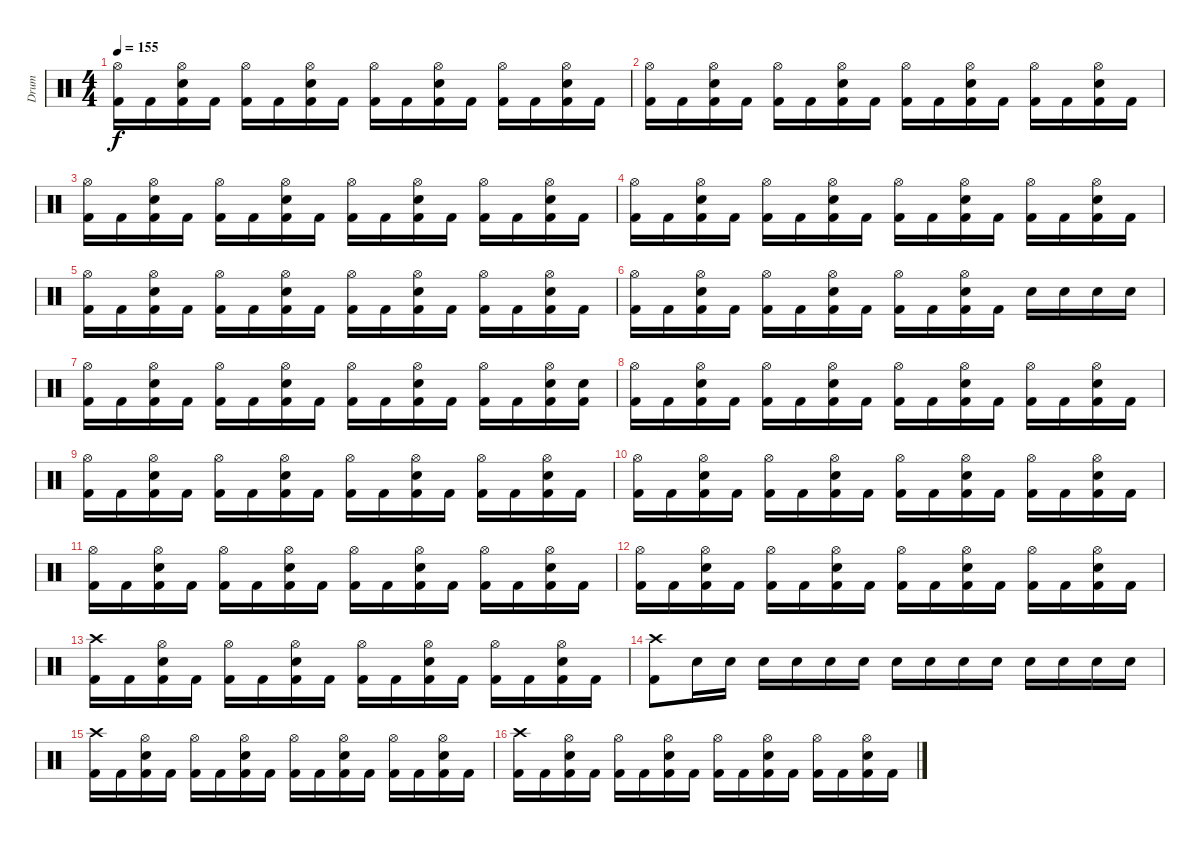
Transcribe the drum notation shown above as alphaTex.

\track ("Drum" "Drum") {instrument percussion}
\staff {score}
\articulation defaults
\ts (4 4)
\tempo 155
\clef neutral
\ks c
("Kick (hit) 2" "Hi-Hat (open)").16{dy f} "Kick (hit) 2".16 ("Kick (hit) 2" "Snare (hit) 2" "Hi-Hat (open)").16 "Kick (hit) 2".16 ("Kick (hit) 2" "Hi-Hat (open)").16 "Kick (hit) 2".16 ("Kick (hit) 2" "Snare (hit) 2" "Hi-Hat (open)").16 "Kick (hit) 2".16 ("Kick (hit) 2" "Hi-Hat (open)").16 "Kick (hit) 2".16 ("Kick (hit) 2" "Snare (hit) 2" "Hi-Hat (open)").16 "Kick (hit) 2".16 ("Kick (hit) 2" "Hi-Hat (open)").16 "Kick (hit) 2".16 ("Kick (hit) 2" "Snare (hit) 2" "Hi-Hat (open)").16 "Kick (hit) 2".16 |
("Kick (hit) 2" "Hi-Hat (open)").16 "Kick (hit) 2".16 ("Kick (hit) 2" "Snare (hit) 2" "Hi-Hat (open)").16 "Kick (hit) 2".16 ("Kick (hit) 2" "Hi-Hat (open)").16 "Kick (hit) 2".16 ("Kick (hit) 2" "Snare (hit) 2" "Hi-Hat (open)").16 "Kick (hit) 2".16 ("Kick (hit) 2" "Hi-Hat (open)").16 "Kick (hit) 2".16 ("Kick (hit) 2" "Snare (hit) 2" "Hi-Hat (open)").16 "Kick (hit) 2".16 ("Kick (hit) 2" "Hi-Hat (open)").16 "Kick (hit) 2".16 ("Kick (hit) 2" "Snare (hit) 2" "Hi-Hat (open)").16 "Kick (hit) 2".16 |
("Kick (hit) 2" "Hi-Hat (open)").16 "Kick (hit) 2".16 ("Kick (hit) 2" "Snare (hit) 2" "Hi-Hat (open)").16 "Kick (hit) 2".16 ("Kick (hit) 2" "Hi-Hat (open)").16 "Kick (hit) 2".16 ("Kick (hit) 2" "Snare (hit) 2" "Hi-Hat (open)").16 "Kick (hit) 2".16 ("Kick (hit) 2" "Hi-Hat (open)").16 "Kick (hit) 2".16 ("Kick (hit) 2" "Snare (hit) 2" "Hi-Hat (open)").16 "Kick (hit) 2".16 ("Kick (hit) 2" "Hi-Hat (open)").16 "Kick (hit) 2".16 ("Kick (hit) 2" "Snare (hit) 2" "Hi-Hat (open)").16 "Kick (hit) 2".16 |
("Kick (hit) 2" "Hi-Hat (open)").16 "Kick (hit) 2".16 ("Kick (hit) 2" "Snare (hit) 2" "Hi-Hat (open)").16 "Kick (hit) 2".16 ("Kick (hit) 2" "Hi-Hat (open)").16 "Kick (hit) 2".16 ("Kick (hit) 2" "Snare (hit) 2" "Hi-Hat (open)").16 "Kick (hit) 2".16 ("Kick (hit) 2" "Hi-Hat (open)").16 "Kick (hit) 2".16 ("Kick (hit) 2" "Snare (hit) 2" "Hi-Hat (open)").16 "Kick (hit) 2".16 ("Kick (hit) 2" "Hi-Hat (open)").16 "Kick (hit) 2".16 ("Kick (hit) 2" "Snare (hit) 2" "Hi-Hat (open)").16 "Kick (hit) 2".16 |
("Kick (hit) 2" "Hi-Hat (open)").16 "Kick (hit) 2".16 ("Kick (hit) 2" "Snare (hit) 2" "Hi-Hat (open)").16 "Kick (hit) 2".16 ("Kick (hit) 2" "Hi-Hat (open)").16 "Kick (hit) 2".16 ("Kick (hit) 2" "Snare (hit) 2" "Hi-Hat (open)").16 "Kick (hit) 2".16 ("Kick (hit) 2" "Hi-Hat (open)").16 "Kick (hit) 2".16 ("Kick (hit) 2" "Snare (hit) 2" "Hi-Hat (open)").16 "Kick (hit) 2".16 ("Kick (hit) 2" "Hi-Hat (open)").16 "Kick (hit) 2".16 ("Kick (hit) 2" "Snare (hit) 2" "Hi-Hat (open)").16 "Kick (hit) 2".16 |
("Kick (hit) 2" "Hi-Hat (open)").16 "Kick (hit) 2".16 ("Kick (hit) 2" "Snare (hit) 2" "Hi-Hat (open)").16 "Kick (hit) 2".16 ("Kick (hit) 2" "Hi-Hat (open)").16 "Kick (hit) 2".16 ("Kick (hit) 2" "Snare (hit) 2" "Hi-Hat (open)").16 "Kick (hit) 2".16 ("Kick (hit) 2" "Hi-Hat (open)").16 "Kick (hit) 2".16 ("Kick (hit) 2" "Snare (hit) 2" "Hi-Hat (open)").16 "Kick (hit) 2".16 "Snare (hit) 2".16 "Snare (hit) 2".16 "Snare (hit) 2".16 "Snare (hit) 2".16 |
("Kick (hit) 2" "Hi-Hat (open)").16 "Kick (hit) 2".16 ("Kick (hit) 2" "Snare (hit) 2" "Hi-Hat (open)").16 "Kick (hit) 2".16 ("Kick (hit) 2" "Hi-Hat (open)").16 "Kick (hit) 2".16 ("Kick (hit) 2" "Snare (hit) 2" "Hi-Hat (open)").16 "Kick (hit) 2".16 ("Kick (hit) 2" "Hi-Hat (open)").16 "Kick (hit) 2".16 ("Kick (hit) 2" "Snare (hit) 2" "Hi-Hat (open)").16 "Kick (hit) 2".16 ("Kick (hit) 2" "Hi-Hat (open)").16 "Kick (hit) 2".16 ("Kick (hit) 2" "Hi-Hat (open)" "Snare (hit) 2").16 ("Kick (hit) 2" "Snare (hit) 2").16 |
("Kick (hit) 2" "Hi-Hat (open)").16 "Kick (hit) 2".16 ("Kick (hit) 2" "Snare (hit) 2" "Hi-Hat (open)").16 "Kick (hit) 2".16 ("Kick (hit) 2" "Hi-Hat (open)").16 "Kick (hit) 2".16 ("Kick (hit) 2" "Snare (hit) 2" "Hi-Hat (open)").16 "Kick (hit) 2".16 ("Kick (hit) 2" "Hi-Hat (open)").16 "Kick (hit) 2".16 ("Kick (hit) 2" "Snare (hit) 2" "Hi-Hat (open)").16 "Kick (hit) 2".16 ("Kick (hit) 2" "Hi-Hat (open)").16 "Kick (hit) 2".16 ("Kick (hit) 2" "Snare (hit) 2" "Hi-Hat (open)").16 "Kick (hit) 2".16 |
("Kick (hit) 2" "Hi-Hat (open)").16 "Kick (hit) 2".16 ("Kick (hit) 2" "Snare (hit) 2" "Hi-Hat (open)").16 "Kick (hit) 2".16 ("Kick (hit) 2" "Hi-Hat (open)").16 "Kick (hit) 2".16 ("Kick (hit) 2" "Snare (hit) 2" "Hi-Hat (open)").16 "Kick (hit) 2".16 ("Kick (hit) 2" "Hi-Hat (open)").16 "Kick (hit) 2".16 ("Kick (hit) 2" "Snare (hit) 2" "Hi-Hat (open)").16 "Kick (hit) 2".16 ("Kick (hit) 2" "Hi-Hat (open)").16 "Kick (hit) 2".16 ("Kick (hit) 2" "Snare (hit) 2" "Hi-Hat (open)").16 "Kick (hit) 2".16 |
("Kick (hit) 2" "Hi-Hat (open)").16 "Kick (hit) 2".16 ("Kick (hit) 2" "Snare (hit) 2" "Hi-Hat (open)").16 "Kick (hit) 2".16 ("Kick (hit) 2" "Hi-Hat (open)").16 "Kick (hit) 2".16 ("Kick (hit) 2" "Snare (hit) 2" "Hi-Hat (open)").16 "Kick (hit) 2".16 ("Kick (hit) 2" "Hi-Hat (open)").16 "Kick (hit) 2".16 ("Kick (hit) 2" "Snare (hit) 2" "Hi-Hat (open)").16 "Kick (hit) 2".16 ("Kick (hit) 2" "Hi-Hat (open)").16 "Kick (hit) 2".16 ("Kick (hit) 2" "Snare (hit) 2" "Hi-Hat (open)").16 "Kick (hit) 2".16 |
("Kick (hit) 2" "Hi-Hat (open)").16 "Kick (hit) 2".16 ("Kick (hit) 2" "Snare (hit) 2" "Hi-Hat (open)").16 "Kick (hit) 2".16 ("Kick (hit) 2" "Hi-Hat (open)").16 "Kick (hit) 2".16 ("Kick (hit) 2" "Snare (hit) 2" "Hi-Hat (open)").16 "Kick (hit) 2".16 ("Kick (hit) 2" "Hi-Hat (open)").16 "Kick (hit) 2".16 ("Kick (hit) 2" "Snare (hit) 2" "Hi-Hat (open)").16 "Kick (hit) 2".16 ("Kick (hit) 2" "Hi-Hat (open)").16 "Kick (hit) 2".16 ("Kick (hit) 2" "Snare (hit) 2" "Hi-Hat (open)").16 "Kick (hit) 2".16 |
("Kick (hit) 2" "Hi-Hat (open)").16 "Kick (hit) 2".16 ("Kick (hit) 2" "Snare (hit) 2" "Hi-Hat (open)").16 "Kick (hit) 2".16 ("Kick (hit) 2" "Hi-Hat (open)").16 "Kick (hit) 2".16 ("Kick (hit) 2" "Snare (hit) 2" "Hi-Hat (open)").16 "Kick (hit) 2".16 ("Kick (hit) 2" "Hi-Hat (open)").16 "Kick (hit) 2".16 ("Kick (hit) 2" "Snare (hit) 2" "Hi-Hat (open)").16 "Kick (hit) 2".16 ("Kick (hit) 2" "Hi-Hat (open)").16 "Kick (hit) 2".16 ("Kick (hit) 2" "Snare (hit) 2" "Hi-Hat (open)").16 "Kick (hit) 2".16 |
("Kick (hit) 2" "Crash high (hit)").16 "Kick (hit) 2".16 ("Kick (hit) 2" "Snare (hit) 2" "Hi-Hat (open)").16 "Kick (hit) 2".16 ("Kick (hit) 2" "Hi-Hat (open)").16 "Kick (hit) 2".16 ("Kick (hit) 2" "Snare (hit) 2" "Hi-Hat (open)").16 "Kick (hit) 2".16 ("Kick (hit) 2" "Hi-Hat (open)").16 "Kick (hit) 2".16 ("Kick (hit) 2" "Snare (hit) 2" "Hi-Hat (open)").16 "Kick (hit) 2".16 ("Kick (hit) 2" "Hi-Hat (open)").16 "Kick (hit) 2".16 ("Kick (hit) 2" "Snare (hit) 2" "Hi-Hat (open)").16 "Kick (hit) 2".16 |
("Kick (hit) 2" "Crash high (hit)").8 "Snare (hit) 2".16 "Snare (hit) 2".16 "Snare (hit) 2".16 "Snare (hit) 2".16 "Snare (hit) 2".16 "Snare (hit) 2".16 "Snare (hit) 2".16 "Snare (hit) 2".16 "Snare (hit) 2".16 "Snare (hit) 2".16 "Snare (hit) 2".16 "Snare (hit) 2".16 "Snare (hit) 2".16 "Snare (hit) 2".16 |
("Kick (hit) 2" "Crash high (hit)").16 "Kick (hit) 2".16 ("Kick (hit) 2" "Snare (hit) 2" "Hi-Hat (open)").16 "Kick (hit) 2".16 ("Kick (hit) 2" "Hi-Hat (open)").16 "Kick (hit) 2".16 ("Kick (hit) 2" "Snare (hit) 2" "Hi-Hat (open)").16 "Kick (hit) 2".16 ("Kick (hit) 2" "Hi-Hat (open)").16 "Kick (hit) 2".16 ("Kick (hit) 2" "Snare (hit) 2" "Hi-Hat (open)").16 "Kick (hit) 2".16 ("Kick (hit) 2" "Hi-Hat (open)").16 "Kick (hit) 2".16 ("Kick (hit) 2" "Snare (hit) 2" "Hi-Hat (open)").16 "Kick (hit) 2".16 |
("Kick (hit) 2" "Crash high (hit)").16 "Kick (hit) 2".16 ("Kick (hit) 2" "Snare (hit) 2" "Hi-Hat (open)").16 "Kick (hit) 2".16 ("Kick (hit) 2" "Hi-Hat (open)").16 "Kick (hit) 2".16 ("Kick (hit) 2" "Snare (hit) 2" "Hi-Hat (open)").16 "Kick (hit) 2".16 ("Kick (hit) 2" "Hi-Hat (open)").16 "Kick (hit) 2".16 ("Kick (hit) 2" "Snare (hit) 2" "Hi-Hat (open)").16 "Kick (hit) 2".16 ("Kick (hit) 2" "Hi-Hat (open)").16 "Kick (hit) 2".16 ("Kick (hit) 2" "Snare (hit) 2" "Hi-Hat (open)").16 "Kick (hit) 2".16
